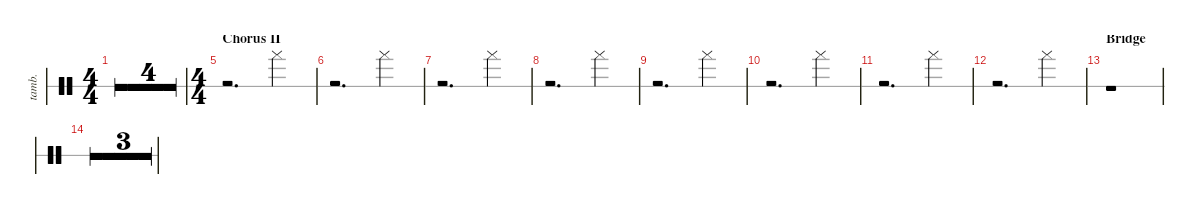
\defaultSystemsLayout 4
\hideDynamics
\bracketExtendMode nobrackets
\otherSystemsTrackNameOrientation horizontal
\track ("Tambourine" "tamb.") {defaultSystemsLayout 4 multiBarRest instrument percussion}
\staff {score 1}
\articulation defaults
\ts (4 4)
\tempo 70
\clef neutral
\ks c
r.1{dy ff} |
r.1 |
r.1 |
\ts (2 4)
\beaming (8 2 2)
r.2 |
\ts (4 4)
\beaming (8 2 2 2 2)
\section ("" "Chorus II")
r.2{d} "Tambourine (hand)".4 |
r.2{d} "Tambourine (hand)".4 |
r.2{d} "Tambourine (hand)".4 |
r.2{d} "Tambourine (hand)".4 |
r.2{d} "Tambourine (hand)".4 |
r.2{d} "Tambourine (hand)".4 |
r.2{d} "Tambourine (hand)".4 |
r.2{d} "Tambourine (hand)".4 |
\section ("" "Bridge")
r.1 |
r.1 |
r.1 |
r.1
